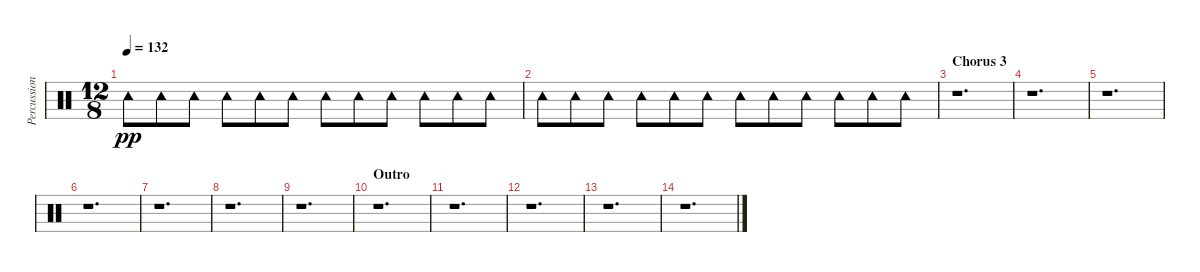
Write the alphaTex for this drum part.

\track ("Percussion" "Percussion") {instrument percussion}
\staff {score}
\articulation defaults
\ts (12 8)
\tempo 132
\clef neutral
\ks c "Tambourine (hit)".8{dy pp} "Tambourine (hit)".8 "Tambourine (hit)".8 "Tambourine (hit)".8 "Tambourine (hit)".8 "Tambourine (hit)".8 "Tambourine (hit)".8 "Tambourine (hit)".8 "Tambourine (hit)".8 "Tambourine (hit)".8 "Tambourine (hit)".8 "Tambourine (hit)".8
|
"Tambourine (hit)".8 "Tambourine (hit)".8 "Tambourine (hit)".8 "Tambourine (hit)".8 "Tambourine (hit)".8 "Tambourine (hit)".8 "Tambourine (hit)".8 "Tambourine (hit)".8 "Tambourine (hit)".8 "Tambourine (hit)".8 "Tambourine (hit)".8 "Tambourine (hit)".8 |
\section ("" "Chorus 3")
r.1{d} |
r.1{d} |
r.1{d} |
r.1{d} |
r.1{d} |
r.1{d} |
r.1{d} |
\section ("" "Outro")
r.1{d} |
r.1{d} |
r.1{d} |
r.1{d} |
r.1{d}
